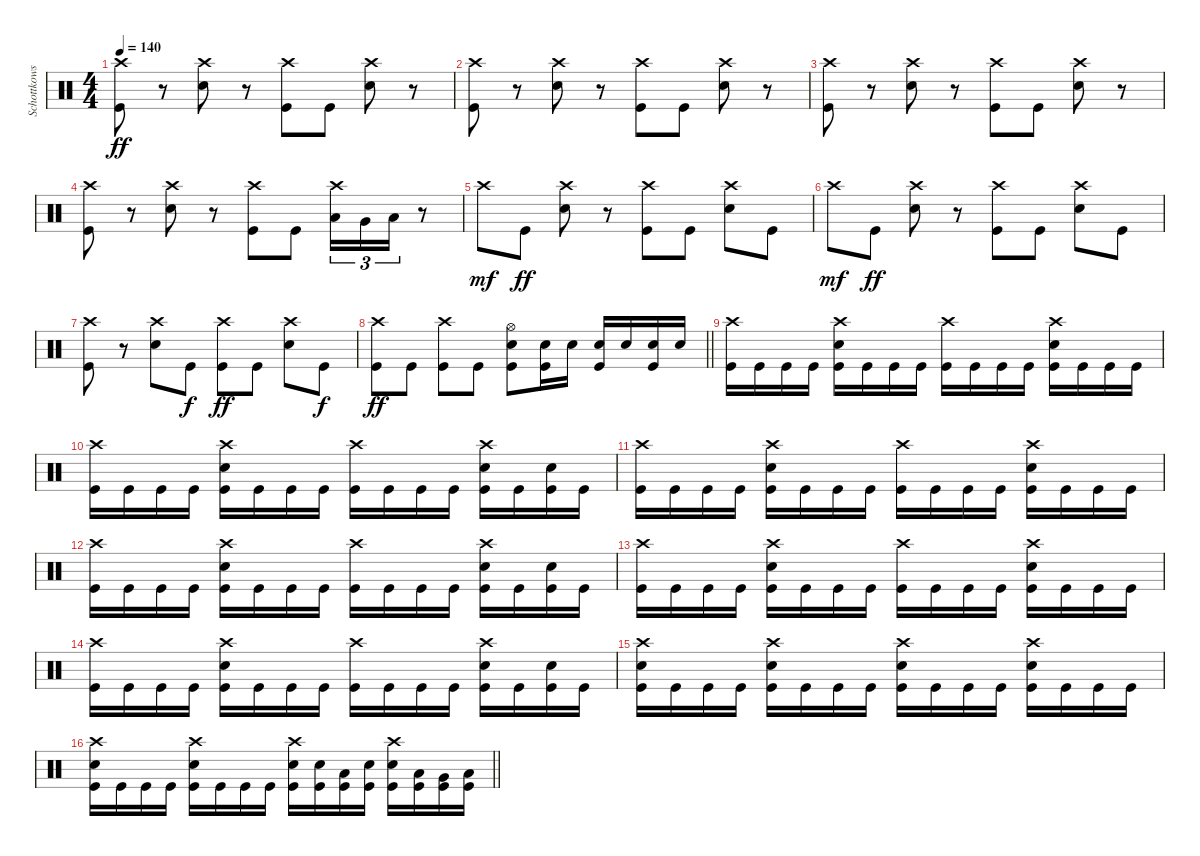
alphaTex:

\track ("Schottkowski" "Schottkows") {instrument percussion}
\staff {score}
\articulation defaults
\ts (4 4)
\tempo 140
\clef neutral
\ks c
("Crash high (hit)" "Kick (hit)").8{dy ff} r.8 ("Crash high (hit)" "Snare (hit) 2").8 r.8 ("Crash high (hit)" "Kick (hit)").8 "Kick (hit)".8 ("Crash high (hit)" "Snare (hit) 2").8 r.8 |
("Crash high (hit)" "Kick (hit)").8 r.8 ("Crash high (hit)" "Snare (hit) 2").8 r.8 ("Crash high (hit)" "Kick (hit)").8 "Kick (hit)".8 ("Crash high (hit)" "Snare (hit) 2").8 r.8 |
("Crash high (hit)" "Kick (hit)").8 r.8 ("Crash high (hit)" "Snare (hit) 2").8 r.8 ("Crash high (hit)" "Kick (hit)").8 "Kick (hit)".8 ("Crash high (hit)" "Snare (hit) 2").8 r.8 |
("Crash high (hit)" "Kick (hit)").8 r.8 ("Crash high (hit)" "Snare (hit) 2").8 r.8 ("Crash high (hit)" "Kick (hit)").8 "Kick (hit)".8 ("Crash high (hit)" "Low Tom (hit)").16{tu (3 2)} "Very Low Tom (hit)".16{tu (3 2)} "Low Floor Tom (hit)".16{tu (3 2)} r.8 |
"Crash high (hit)".8{dy mf} "Kick (hit)".8{dy ff} ("Crash high (hit)" "Snare (hit) 2").8 r.8 ("Crash high (hit)" "Kick (hit)").8 "Kick (hit)".8 ("Crash high (hit)" "Snare (hit) 2").8 "Kick (hit)".8 |
"Crash high (hit)".8{dy mf} "Kick (hit)".8{dy ff} ("Crash high (hit)" "Snare (hit) 2").8 r.8 ("Crash high (hit)" "Kick (hit)").8 "Kick (hit)".8 ("Crash high (hit)" "Snare (hit) 2").8 "Kick (hit)".8 |
("Crash high (hit)" "Kick (hit)").8 r.8 ("Crash high (hit)" "Snare (hit) 2").8 "Kick (hit)".8{dy f} ("Crash high (hit)" "Kick (hit)").8{dy ff} "Kick (hit)".8 ("Crash high (hit)" "Snare (hit) 2").8 "Kick (hit)".8{dy f} |
\barLineRight lightlight
("Crash high (hit)" "Kick (hit)").8{dy ff} "Kick (hit)".8 ("Crash high (hit)" "Kick (hit)").8 "Kick (hit)".8 ("Hi-Hat (open)" "Snare (hit) 2" "Kick (hit)").8 ("Snare (hit) 2" "Kick (hit)").16 "Snare (hit) 2".16 ("Snare (hit) 2" "Kick (hit)").16 "Snare (hit) 2".16 ("Snare (hit) 2" "Kick (hit)").16 "Snare (hit) 2".16 |
\section ("" "")
("Crash high (hit)" "Kick (hit)").16 "Kick (hit)".16 "Kick (hit)".16 "Kick (hit)".16 ("Crash high (hit)" "Snare (hit) 2" "Kick (hit)").16 "Kick (hit)".16 "Kick (hit)".16 "Kick (hit)".16 ("Crash high (hit)" "Kick (hit)").16 "Kick (hit)".16 "Kick (hit)".16 "Kick (hit)".16 ("Crash high (hit)" "Snare (hit) 2" "Kick (hit)").16 "Kick (hit)".16 "Kick (hit)".16 "Kick (hit)".16 |
("Crash high (hit)" "Kick (hit)").16 "Kick (hit)".16 "Kick (hit)".16 "Kick (hit)".16 ("Crash high (hit)" "Snare (hit) 2" "Kick (hit)").16 "Kick (hit)".16 "Kick (hit)".16 "Kick (hit)".16 ("Crash high (hit)" "Kick (hit)").16 "Kick (hit)".16 "Kick (hit)".16 "Kick (hit)".16 ("Crash high (hit)" "Snare (hit) 2" "Kick (hit)").16 "Kick (hit)".16 ("Snare (hit) 2" "Kick (hit)").16 "Kick (hit)".16 |
("Crash high (hit)" "Kick (hit)").16 "Kick (hit)".16 "Kick (hit)".16 "Kick (hit)".16 ("Crash high (hit)" "Snare (hit) 2" "Kick (hit)").16 "Kick (hit)".16 "Kick (hit)".16 "Kick (hit)".16 ("Crash high (hit)" "Kick (hit)").16 "Kick (hit)".16 "Kick (hit)".16 "Kick (hit)".16 ("Crash high (hit)" "Snare (hit) 2" "Kick (hit)").16 "Kick (hit)".16 "Kick (hit)".16 "Kick (hit)".16 |
("Crash high (hit)" "Kick (hit)").16 "Kick (hit)".16 "Kick (hit)".16 "Kick (hit)".16 ("Crash high (hit)" "Snare (hit) 2" "Kick (hit)").16 "Kick (hit)".16 "Kick (hit)".16 "Kick (hit)".16 ("Crash high (hit)" "Kick (hit)").16 "Kick (hit)".16 "Kick (hit)".16 "Kick (hit)".16 ("Crash high (hit)" "Snare (hit) 2" "Kick (hit)").16 "Kick (hit)".16 ("Snare (hit) 2" "Kick (hit)").16 "Kick (hit)".16 |
("Crash high (hit)" "Kick (hit)").16 "Kick (hit)".16 "Kick (hit)".16 "Kick (hit)".16 ("Crash high (hit)" "Snare (hit) 2" "Kick (hit)").16 "Kick (hit)".16 "Kick (hit)".16 "Kick (hit)".16 ("Crash high (hit)" "Kick (hit)").16 "Kick (hit)".16 "Kick (hit)".16 "Kick (hit)".16 ("Crash high (hit)" "Snare (hit) 2" "Kick (hit)").16 "Kick (hit)".16 "Kick (hit)".16 "Kick (hit)".16 |
("Crash high (hit)" "Kick (hit)").16 "Kick (hit)".16 "Kick (hit)".16 "Kick (hit)".16 ("Crash high (hit)" "Snare (hit) 2" "Kick (hit)").16 "Kick (hit)".16 "Kick (hit)".16 "Kick (hit)".16 ("Crash high (hit)" "Kick (hit)").16 "Kick (hit)".16 "Kick (hit)".16 "Kick (hit)".16 ("Crash high (hit)" "Snare (hit) 2" "Kick (hit)").16 "Kick (hit)".16 ("Snare (hit) 2" "Kick (hit)").16 "Kick (hit)".16 |
("Crash high (hit)" "Snare (hit) 2" "Kick (hit)").16 "Kick (hit)".16 "Kick (hit)".16 "Kick (hit)".16 ("Crash high (hit)" "Snare (hit) 2" "Kick (hit)").16 "Kick (hit)".16 "Kick (hit)".16 "Kick (hit)".16 ("Crash high (hit)" "Snare (hit) 2" "Kick (hit)").16 "Kick (hit)".16 "Kick (hit)".16 "Kick (hit)".16 ("Crash high (hit)" "Snare (hit) 2" "Kick (hit)").16 "Kick (hit)".16 "Kick (hit)".16 "Kick (hit)".16 |
\barLineRight lightlight
("Crash high (hit)" "Snare (hit) 2" "Kick (hit)").16 "Kick (hit)".16 "Kick (hit)".16 "Kick (hit)".16 ("Crash high (hit)" "Snare (hit) 2" "Kick (hit)").16 "Kick (hit)".16 "Kick (hit)".16 "Kick (hit)".16 ("Crash high (hit)" "Snare (hit) 2" "Kick (hit)").16 ("Snare (hit) 2" "Kick (hit)").16 ("Low Tom (hit)" "Kick (hit)").16 ("Snare (hit) 2" "Kick (hit)").16 ("Crash high (hit)" "Snare (hit) 2" "Kick (hit)").16 ("Low Tom (hit)" "Kick (hit)").16 ("Very Low Tom (hit)" "Kick (hit)").16 ("Low Floor Tom (hit)" "Kick (hit)").16
